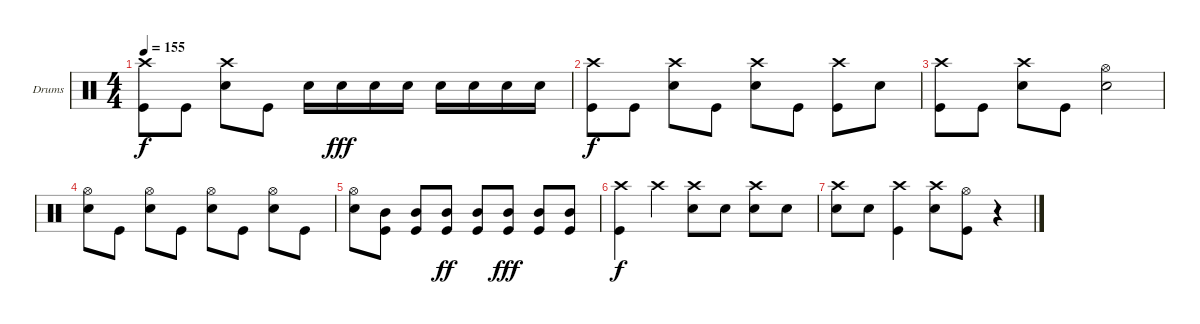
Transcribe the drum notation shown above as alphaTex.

\defaultSystemsLayout 4
\bracketExtendMode groupsimilarinstruments
\firstSystemTrackNameOrientation horizontal
\otherSystemsTrackNameOrientation horizontal
\track ("Ben Tatcher" "Drums") {instrument percussion}
\staff {score}
\articulation defaults
\ts (4 4)
\tempo 155
\clef neutral
\ks c
("Kick (hit)" "Crash high (hit)").8{dy f} "Kick (hit)".8 ("Snare (hit) 2" "Crash high (hit)").8 "Kick (hit)".8 "Snare (hit) 2".16 "Snare (hit) 2".16{dy fff} "Snare (hit) 2".16 "Snare (hit) 2".16 "Snare (hit) 2".16 "Snare (hit) 2".16 "Snare (hit) 2".16 "Snare (hit) 2".16 |
("Kick (hit)" "Crash high (hit)").8{dy f} "Kick (hit)".8 ("Snare (hit) 2" "Crash high (hit)").8 "Kick (hit)".8 ("Snare (hit) 2" "Crash high (hit)").8 "Kick (hit)".8 ("Kick (hit)" "Crash high (hit)").8 "Snare (hit) 2".8 |
("Kick (hit)" "Crash high (hit)").8 "Kick (hit)".8 ("Snare (hit) 2" "Crash high (hit)").8 "Kick (hit)".8 ("Hi-Hat (open)" "Snare (hit) 2").2 |
("Snare (hit) 2" "Hi-Hat (open)").8 "Kick (hit)".8 ("Snare (hit) 2" "Hi-Hat (open)").8 "Kick (hit)".8 ("Snare (hit) 2" "Hi-Hat (open)").8 "Kick (hit)".8 ("Snare (hit) 2" "Hi-Hat (open)").8 "Kick (hit)".8 |
("Snare (hit) 2" "Hi-Hat (open)").8 ("Kick (hit)" "Mid Tom (hit)").8 ("Kick (hit)" "Mid Tom (hit)").8 ("Kick (hit)" "Mid Tom (hit)").8{dy ff} ("Kick (hit)" "Mid Tom (hit)").8 ("Kick (hit)" "Mid Tom (hit)").8{dy fff} ("Kick (hit)" "Mid Tom (hit)").8 ("Kick (hit)" "Mid Tom (hit)").8 |
("Crash high (hit)" "Kick (hit)").4{dy f} "Crash high (hit)".4 ("Snare (hit) 2" "Crash high (hit)").8 "Snare (hit) 2".8 ("Snare (hit) 2" "Crash high (hit)").8 "Snare (hit) 2".8 |
("Snare (hit) 2" "Crash high (hit)").8 "Snare (hit) 2".8 ("Crash high (hit)" "Kick (hit)").4 ("Snare (hit) 2" "Crash high (hit)").8 ("Kick (hit)" "Hi-Hat (open)").8 r.4
